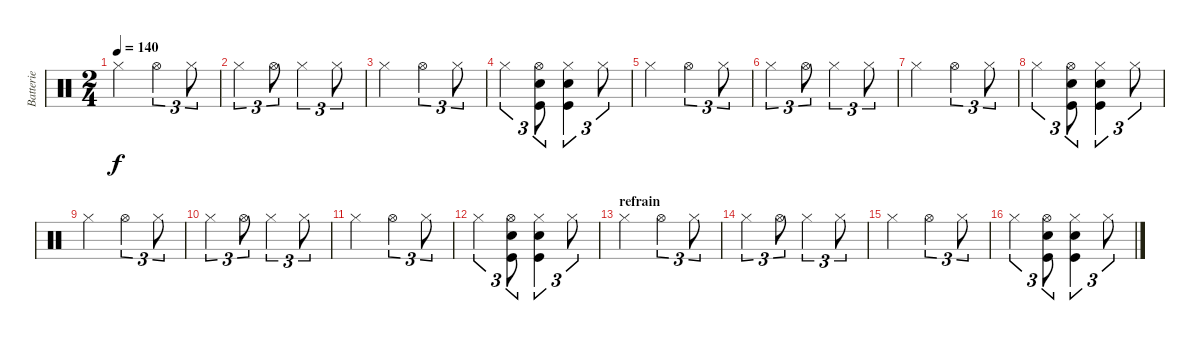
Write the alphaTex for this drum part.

\track ("Batterie" "Batterie") {instrument percussion}
\staff {score}
\articulation defaults
\ts (2 4)
\tempo 140
\clef neutral
\ks c "Hi-Hat (closed)".4{dy f} "Hi-Hat (open)".4{tu (3 2)} "Hi-Hat (closed)".8{tu (3 2)}
|
"Hi-Hat (closed)".4{tu (3 2)} "Hi-Hat (open)".8{tu (3 2)} "Hi-Hat (closed)".4{tu (3 2)} "Hi-Hat (closed)".8{tu (3 2)} |
"Hi-Hat (closed)".4 "Hi-Hat (open)".4{tu (3 2)} "Hi-Hat (closed)".8{tu (3 2)} |
"Hi-Hat (closed)".4{tu (3 2)} ("Hi-Hat (open)" "Snare (hit) 2" "Kick (hit)").8{tu (3 2)} ("Hi-Hat (closed)" "Snare (hit) 2" "Kick (hit)").4{tu (3 2)} "Hi-Hat (closed)".8{tu (3 2)} |
"Hi-Hat (closed)".4 "Hi-Hat (open)".4{tu (3 2)} "Hi-Hat (closed)".8{tu (3 2)} |
"Hi-Hat (closed)".4{tu (3 2)} "Hi-Hat (open)".8{tu (3 2)} "Hi-Hat (closed)".4{tu (3 2)} "Hi-Hat (closed)".8{tu (3 2)} |
"Hi-Hat (closed)".4 "Hi-Hat (open)".4{tu (3 2)} "Hi-Hat (closed)".8{tu (3 2)} |
"Hi-Hat (closed)".4{tu (3 2)} ("Hi-Hat (open)" "Snare (hit) 2" "Kick (hit)").8{tu (3 2)} ("Hi-Hat (closed)" "Snare (hit) 2" "Kick (hit)").4{tu (3 2)} "Hi-Hat (closed)".8{tu (3 2)} |
"Hi-Hat (closed)".4 "Hi-Hat (open)".4{tu (3 2)} "Hi-Hat (closed)".8{tu (3 2)} |
"Hi-Hat (closed)".4{tu (3 2)} "Hi-Hat (open)".8{tu (3 2)} "Hi-Hat (closed)".4{tu (3 2)} "Hi-Hat (closed)".8{tu (3 2)} |
"Hi-Hat (closed)".4 "Hi-Hat (open)".4{tu (3 2)} "Hi-Hat (closed)".8{tu (3 2)} |
"Hi-Hat (closed)".4{tu (3 2)} ("Hi-Hat (open)" "Snare (hit) 2" "Kick (hit)").8{tu (3 2)} ("Hi-Hat (closed)" "Snare (hit) 2" "Kick (hit)").4{tu (3 2)} "Hi-Hat (closed)".8{tu (3 2)} |
\section ("" "refrain")
"Hi-Hat (closed)".4 "Hi-Hat (open)".4{tu (3 2)} "Hi-Hat (closed)".8{tu (3 2)} |
"Hi-Hat (closed)".4{tu (3 2)} "Hi-Hat (open)".8{tu (3 2)} "Hi-Hat (closed)".4{tu (3 2)} "Hi-Hat (closed)".8{tu (3 2)} |
"Hi-Hat (closed)".4 "Hi-Hat (open)".4{tu (3 2)} "Hi-Hat (closed)".8{tu (3 2)} |
"Hi-Hat (closed)".4{tu (3 2)} ("Hi-Hat (open)" "Snare (hit) 2" "Kick (hit)").8{tu (3 2)} ("Hi-Hat (closed)" "Snare (hit) 2" "Kick (hit)").4{tu (3 2)} "Hi-Hat (closed)".8{tu (3 2)}
